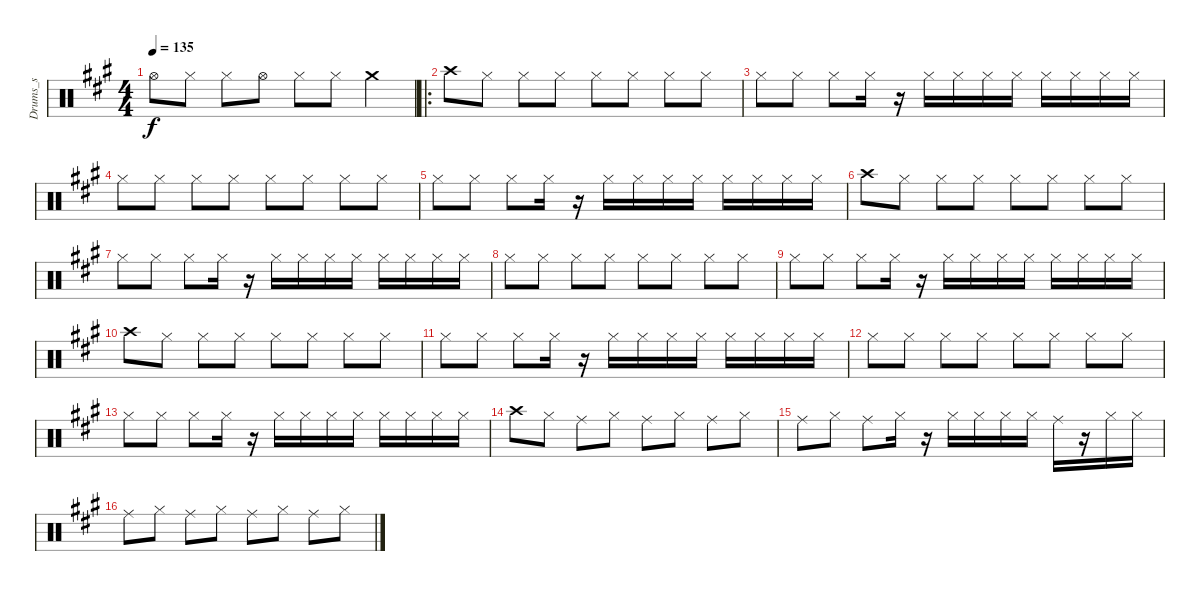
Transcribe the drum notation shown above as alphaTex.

\track ("Drums_s" "Drums_s") {instrument percussion}
\staff {score}
\articulation defaults
\ts (4 4)
\tempo 135
\clef neutral
\ks a "Hi-Hat (open)".8{dy f} "Hi-Hat (closed)".8 "Hi-Hat (closed)".8 "Hi-Hat (open)".8 "Hi-Hat (closed)".8 "Hi-Hat (closed)".8 "Crash medium (hit)".4
|
\ro "Crash high (hit)".8 "Hi-Hat (closed)".8 "Hi-Hat (closed)".8 "Hi-Hat (closed)".8 "Hi-Hat (closed)".8 "Hi-Hat (closed)".8 "Hi-Hat (closed)".8 "Hi-Hat (closed)".8
|
"Hi-Hat (closed)".8 "Hi-Hat (closed)".8 "Hi-Hat (closed)".8 "Hi-Hat (closed)".16 r.16 "Hi-Hat (closed)".16 "Hi-Hat (closed)".16 "Hi-Hat (closed)".16 "Hi-Hat (closed)".16 "Hi-Hat (closed)".16 "Hi-Hat (closed)".16 "Hi-Hat (closed)".16 "Hi-Hat (closed)".16 |
"Hi-Hat (closed)".8 "Hi-Hat (closed)".8 "Hi-Hat (closed)".8 "Hi-Hat (closed)".8 "Hi-Hat (closed)".8 "Hi-Hat (closed)".8 "Hi-Hat (closed)".8 "Hi-Hat (closed)".8 |
"Hi-Hat (closed)".8 "Hi-Hat (closed)".8 "Hi-Hat (closed)".8 "Hi-Hat (closed)".16 r.16 "Hi-Hat (closed)".16 "Hi-Hat (closed)".16 "Hi-Hat (closed)".16 "Hi-Hat (closed)".16 "Hi-Hat (closed)".16 "Hi-Hat (closed)".16 "Hi-Hat (closed)".16 "Hi-Hat (closed)".16 |
"Crash high (hit)".8 "Hi-Hat (closed)".8 "Hi-Hat (closed)".8 "Hi-Hat (closed)".8 "Hi-Hat (closed)".8 "Hi-Hat (closed)".8 "Hi-Hat (closed)".8 "Hi-Hat (closed)".8 |
"Hi-Hat (closed)".8 "Hi-Hat (closed)".8 "Hi-Hat (closed)".8 "Hi-Hat (closed)".16 r.16 "Hi-Hat (closed)".16 "Hi-Hat (closed)".16 "Hi-Hat (closed)".16 "Hi-Hat (closed)".16 "Hi-Hat (closed)".16 "Hi-Hat (closed)".16 "Hi-Hat (closed)".16 "Hi-Hat (closed)".16 |
"Hi-Hat (closed)".8 "Hi-Hat (closed)".8 "Hi-Hat (closed)".8 "Hi-Hat (closed)".8 "Hi-Hat (closed)".8 "Hi-Hat (closed)".8 "Hi-Hat (closed)".8 "Hi-Hat (closed)".8 |
"Hi-Hat (closed)".8 "Hi-Hat (closed)".8 "Hi-Hat (closed)".8 "Hi-Hat (closed)".16 r.16 "Hi-Hat (closed)".16 "Hi-Hat (closed)".16 "Hi-Hat (closed)".16 "Hi-Hat (closed)".16 "Hi-Hat (closed)".16 "Hi-Hat (closed)".16 "Hi-Hat (closed)".16 "Hi-Hat (closed)".16 |
"Crash high (hit)".8 "Hi-Hat (closed)".8 "Hi-Hat (closed)".8 "Hi-Hat (closed)".8 "Hi-Hat (closed)".8 "Hi-Hat (closed)".8 "Hi-Hat (closed)".8 "Hi-Hat (closed)".8 |
"Hi-Hat (closed)".8 "Hi-Hat (closed)".8 "Hi-Hat (closed)".8 "Hi-Hat (closed)".16 r.16 "Hi-Hat (closed)".16 "Hi-Hat (closed)".16 "Hi-Hat (closed)".16 "Hi-Hat (closed)".16 "Hi-Hat (closed)".16 "Hi-Hat (closed)".16 "Hi-Hat (closed)".16 "Hi-Hat (closed)".16 |
"Hi-Hat (closed)".8 "Hi-Hat (closed)".8 "Hi-Hat (closed)".8 "Hi-Hat (closed)".8 "Hi-Hat (closed)".8 "Hi-Hat (closed)".8 "Hi-Hat (closed)".8 "Hi-Hat (closed)".8 |
"Hi-Hat (closed)".8 "Hi-Hat (closed)".8 "Hi-Hat (closed)".8 "Hi-Hat (closed)".16 r.16 "Hi-Hat (closed)".16 "Hi-Hat (closed)".16 "Hi-Hat (closed)".16 "Hi-Hat (closed)".16 "Hi-Hat (closed)".16 "Hi-Hat (closed)".16 "Hi-Hat (closed)".16 "Hi-Hat (closed)".16 |
"Crash high (hit)".8 "Hi-Hat (closed)".8 "Ride (middle)".8 "Hi-Hat (closed)".8 "Ride (middle)".8 "Hi-Hat (closed)".8 "Ride (middle)".8 "Hi-Hat (closed)".8 |
"Ride (middle)".8 "Hi-Hat (closed)".8 "Ride (middle)".8 "Hi-Hat (closed)".16 r.16 "Hi-Hat (closed)".16 "Hi-Hat (closed)".16 "Hi-Hat (closed)".16 "Hi-Hat (closed)".16 "Ride (middle)".16 r.16 "Hi-Hat (closed)".16 "Hi-Hat (closed)".16 |
"Ride (middle)".8 "Hi-Hat (closed)".8 "Ride (middle)".8 "Hi-Hat (closed)".8 "Ride (middle)".8 "Hi-Hat (closed)".8 "Ride (middle)".8 "Hi-Hat (closed)".8
